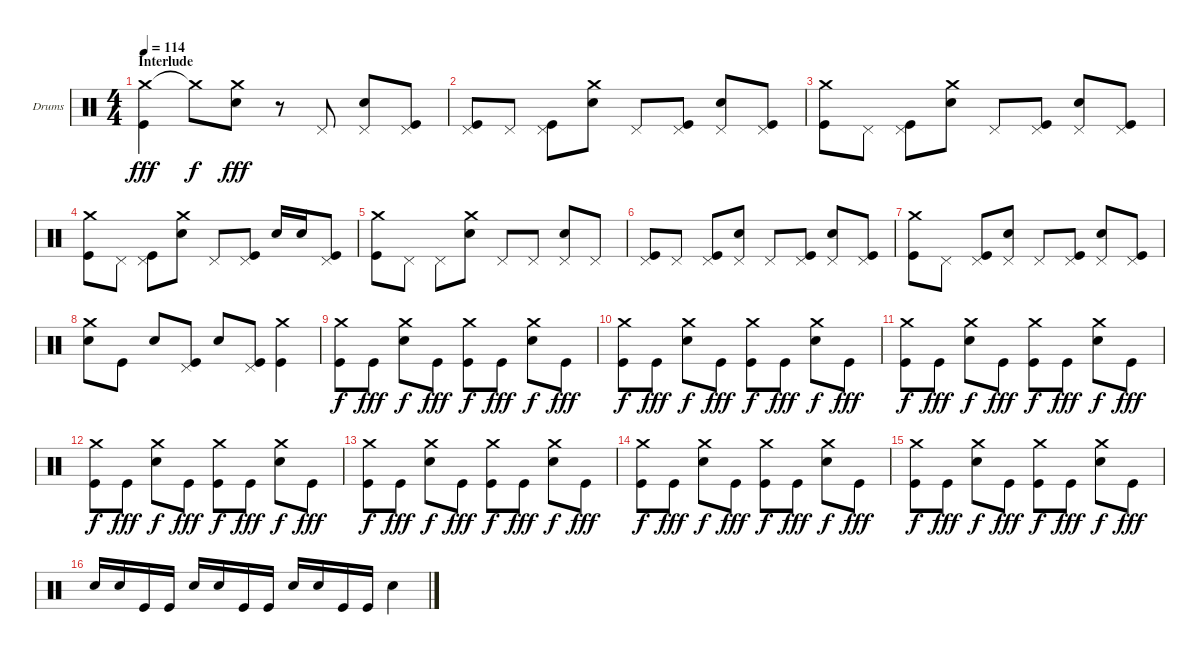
\defaultSystemsLayout 4
\bracketExtendMode groupsimilarinstruments
\firstSystemTrackNameOrientation horizontal
\otherSystemsTrackNameOrientation horizontal
\track ("Drumkit" "Drums") {instrument percussion}
\staff {score}
\articulation defaults
\ts (4 4)
\section ("" "Interlude")
\tempo 114
\clef neutral
\scale
1.05296
\ks c
("Crash medium (hit)" "Kick (hit)").4{dy fff} "Crash medium (hit)"{t}.8{dy f} ("Crash medium (hit)" "Snare (hit) 2").8{dy fff} r.8 "Pedal Hi-Hat (hit)".8 ("Pedal Hi-Hat (hit)" "Snare (hit) 2").8 ("Pedal Hi-Hat (hit)" "Kick (hit)").8 |
\scale
0.973518 ("Pedal Hi-Hat (hit)" "Kick (hit)").8 "Pedal Hi-Hat (hit)".8 ("Pedal Hi-Hat (hit)" "Kick (hit)").8 ("Crash medium (hit)" "Snare (hit) 2").8 "Pedal Hi-Hat (hit)".8 ("Pedal Hi-Hat (hit)" "Kick (hit)").8 ("Pedal Hi-Hat (hit)" "Snare (hit) 2").8 ("Pedal Hi-Hat (hit)" "Kick (hit)").8 |
\scale
0.973518 ("Crash medium (hit)" "Kick (hit)").8 "Pedal Hi-Hat (hit)".8 ("Pedal Hi-Hat (hit)" "Kick (hit)").8 ("Crash medium (hit)" "Snare (hit) 2").8 "Pedal Hi-Hat (hit)".8 ("Pedal Hi-Hat (hit)" "Kick (hit)").8 ("Pedal Hi-Hat (hit)" "Snare (hit) 2").8 ("Pedal Hi-Hat (hit)" "Kick (hit)").8 |
\scale
1.05296 ("Crash medium (hit)" "Kick (hit)").8 "Pedal Hi-Hat (hit)".8 ("Pedal Hi-Hat (hit)" "Kick (hit)").8 ("Crash medium (hit)" "Snare (hit) 2").8 "Pedal Hi-Hat (hit)".8 ("Pedal Hi-Hat (hit)" "Kick (hit)").8 "Snare (hit) 2".16 "Snare (hit) 2".16 ("Pedal Hi-Hat (hit)" "Kick (hit)").8 |
\scale
0.973518 ("Crash medium (hit)" "Kick (hit)").8 "Pedal Hi-Hat (hit)".8 "Pedal Hi-Hat (hit)".8 ("Crash medium (hit)" "Snare (hit) 2").8 "Pedal Hi-Hat (hit)".8 "Pedal Hi-Hat (hit)".8 ("Pedal Hi-Hat (hit)" "Snare (hit) 2").8 "Pedal Hi-Hat (hit)".8 |
\scale
0.973518 ("Pedal Hi-Hat (hit)" "Kick (hit)").8 "Pedal Hi-Hat (hit)".8 ("Pedal Hi-Hat (hit)" "Kick (hit)").8 ("Pedal Hi-Hat (hit)" "Snare (hit) 2").8 "Pedal Hi-Hat (hit)".8 ("Pedal Hi-Hat (hit)" "Kick (hit)").8 ("Pedal Hi-Hat (hit)" "Snare (hit) 2").8 ("Pedal Hi-Hat (hit)" "Kick (hit)").8 |
\scale
1.05296 ("Crash medium (hit)" "Kick (hit)").8 "Pedal Hi-Hat (hit)".8 ("Pedal Hi-Hat (hit)" "Kick (hit)").8 ("Pedal Hi-Hat (hit)" "Snare (hit) 2").8 "Pedal Hi-Hat (hit)".8 ("Pedal Hi-Hat (hit)" "Kick (hit)").8 ("Pedal Hi-Hat (hit)" "Snare (hit) 2").8 ("Pedal Hi-Hat (hit)" "Kick (hit)").8 |
\scale
0.973518 ("Crash medium (hit)" "Snare (hit) 2").8 "Kick (hit)".8 "Snare (hit) 2".8 ("Pedal Hi-Hat (hit)" "Kick (hit)").8 "Snare (hit) 2".8 ("Pedal Hi-Hat (hit)" "Kick (hit)").8 ("Crash medium (hit)" "Kick (hit)").4 |
\scale
0.973518 ("Crash medium (hit)" "Kick (hit)").8{dy f} "Kick (hit)".8{dy fff} ("Crash medium (hit)" "Snare (hit) 2").8{dy f} "Kick (hit)".8{dy fff} ("Crash medium (hit)" "Kick (hit)").8{dy f} "Kick (hit)".8{dy fff} ("Crash medium (hit)" "Snare (hit) 2").8{dy f} "Kick (hit)".8{dy fff} |
\scale
1.05296 ("Crash medium (hit)" "Kick (hit)").8{dy f} "Kick (hit)".8{dy fff} ("Crash medium (hit)" "Snare (hit) 2").8{dy f} "Kick (hit)".8{dy fff} ("Crash medium (hit)" "Kick (hit)").8{dy f} "Kick (hit)".8{dy fff} ("Crash medium (hit)" "Snare (hit) 2").8{dy f} "Kick (hit)".8{dy fff} |
\scale
0.973518 ("Crash medium (hit)" "Kick (hit)").8{dy f} "Kick (hit)".8{dy fff} ("Crash medium (hit)" "Snare (hit) 2").8{dy f} "Kick (hit)".8{dy fff} ("Crash medium (hit)" "Kick (hit)").8{dy f} "Kick (hit)".8{dy fff} ("Crash medium (hit)" "Snare (hit) 2").8{dy f} "Kick (hit)".8{dy fff} |
\scale
0.973518 ("Crash medium (hit)" "Kick (hit)").8{dy f} "Kick (hit)".8{dy fff} ("Crash medium (hit)" "Snare (hit) 2").8{dy f} "Kick (hit)".8{dy fff} ("Crash medium (hit)" "Kick (hit)").8{dy f} "Kick (hit)".8{dy fff} ("Crash medium (hit)" "Snare (hit) 2").8{dy f} "Kick (hit)".8{dy fff} |
\scale
1.05296 ("Crash medium (hit)" "Kick (hit)").8{dy f} "Kick (hit)".8{dy fff} ("Crash medium (hit)" "Snare (hit) 2").8{dy f} "Kick (hit)".8{dy fff} ("Crash medium (hit)" "Kick (hit)").8{dy f} "Kick (hit)".8{dy fff} ("Crash medium (hit)" "Snare (hit) 2").8{dy f} "Kick (hit)".8{dy fff} |
\scale
0.973518 ("Crash medium (hit)" "Kick (hit)").8{dy f} "Kick (hit)".8{dy fff} ("Crash medium (hit)" "Snare (hit) 2").8{dy f} "Kick (hit)".8{dy fff} ("Crash medium (hit)" "Kick (hit)").8{dy f} "Kick (hit)".8{dy fff} ("Crash medium (hit)" "Snare (hit) 2").8{dy f} "Kick (hit)".8{dy fff} |
\scale
0.973518 ("Crash medium (hit)" "Kick (hit)").8{dy f} "Kick (hit)".8{dy fff} ("Crash medium (hit)" "Snare (hit) 2").8{dy f} "Kick (hit)".8{dy fff} ("Crash medium (hit)" "Kick (hit)").8{dy f} "Kick (hit)".8{dy fff} ("Crash medium (hit)" "Snare (hit) 2").8{dy f} "Kick (hit)".8{dy fff} |
\scale
1.05296 "Snare (hit) 2".16 "Snare (hit) 2".16 "Kick (hit)".16 "Kick (hit)".16 "Snare (hit) 2".16 "Snare (hit) 2".16 "Kick (hit)".16 "Kick (hit)".16 "Snare (hit) 2".16 "Snare (hit) 2".16 "Kick (hit)".16 "Kick (hit)".16 "Snare (hit) 2".4
